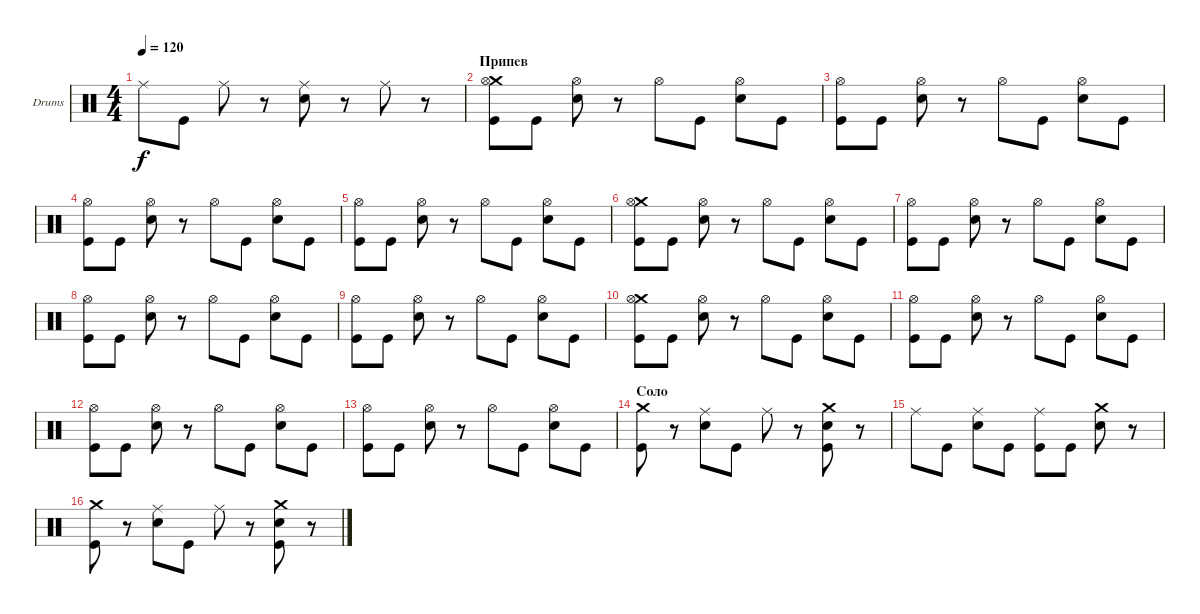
\defaultSystemsLayout 4
\bracketExtendMode groupsimilarinstruments
\firstSystemTrackNameOrientation horizontal
\otherSystemsTrackNameOrientation horizontal
\track ("Drumkit" "Drums") {instrument percussion}
\staff {score}
\articulation defaults
\ts (4 4)
\tempo 120
\clef neutral
\scale
0.333333
\ks c "Ride (middle)".8{dy f} "Kick (hit)".8 "Ride (middle)".8
r.8 ("Ride (middle)" "Snare (hit) 2").8 r.8 "Ride (middle)".8 r.8 |
\section ("" "Припев")
\scale
0.333333 ("Crash medium (hit)" "Hi-Hat (open)" "Kick (hit)").8 "Kick (hit)".8 ("Hi-Hat (open)" "Snare (hit) 2").8 r.8 "Hi-Hat (open)".8 "Kick (hit)".8 ("Hi-Hat (open)" "Snare (hit) 2").8 "Kick (hit)".8 |
\scale
0.333333 ("Hi-Hat (open)" "Kick (hit)").8 "Kick (hit)".8 ("Hi-Hat (open)" "Snare (hit) 2").8 r.8 "Hi-Hat (open)".8 "Kick (hit)".8 ("Hi-Hat (open)" "Snare (hit) 2").8 "Kick (hit)".8 |
\scale
0.333333 ("Hi-Hat (open)" "Kick (hit)").8 "Kick (hit)".8 ("Hi-Hat (open)" "Snare (hit) 2").8 r.8 "Hi-Hat (open)".8 "Kick (hit)".8 ("Hi-Hat (open)" "Snare (hit) 2").8 "Kick (hit)".8 |
\scale
0.333333 ("Hi-Hat (open)" "Kick (hit)").8 "Kick (hit)".8 ("Hi-Hat (open)" "Snare (hit) 2").8 r.8 "Hi-Hat (open)".8 "Kick (hit)".8 ("Hi-Hat (open)" "Snare (hit) 2").8 "Kick (hit)".8 |
\scale
0.333333 ("Crash medium (hit)" "Hi-Hat (open)" "Kick (hit)").8 "Kick (hit)".8 ("Hi-Hat (open)" "Snare (hit) 2").8 r.8 "Hi-Hat (open)".8 "Kick (hit)".8 ("Hi-Hat (open)" "Snare (hit) 2").8 "Kick (hit)".8 |
\scale
0.333333 ("Hi-Hat (open)" "Kick (hit)").8 "Kick (hit)".8 ("Hi-Hat (open)" "Snare (hit) 2").8 r.8 "Hi-Hat (open)".8 "Kick (hit)".8 ("Hi-Hat (open)" "Snare (hit) 2").8 "Kick (hit)".8 |
\scale
0.333333 ("Hi-Hat (open)" "Kick (hit)").8 "Kick (hit)".8 ("Hi-Hat (open)" "Snare (hit) 2").8 r.8 "Hi-Hat (open)".8 "Kick (hit)".8 ("Hi-Hat (open)" "Snare (hit) 2").8 "Kick (hit)".8 |
\scale
0.333333 ("Hi-Hat (open)" "Kick (hit)").8 "Kick (hit)".8 ("Hi-Hat (open)" "Snare (hit) 2").8 r.8 "Hi-Hat (open)".8 "Kick (hit)".8 ("Hi-Hat (open)" "Snare (hit) 2").8 "Kick (hit)".8 |
\scale
0.333333 ("Crash medium (hit)" "Hi-Hat (open)" "Kick (hit)").8 "Kick (hit)".8 ("Hi-Hat (open)" "Snare (hit) 2").8 r.8 "Hi-Hat (open)".8 "Kick (hit)".8 ("Hi-Hat (open)" "Snare (hit) 2").8 "Kick (hit)".8 |
\scale
0.333333 ("Hi-Hat (open)" "Kick (hit)").8 "Kick (hit)".8 ("Hi-Hat (open)" "Snare (hit) 2").8 r.8 "Hi-Hat (open)".8 "Kick (hit)".8 ("Hi-Hat (open)" "Snare (hit) 2").8 "Kick (hit)".8 |
\scale
0.333333 ("Hi-Hat (open)" "Kick (hit)").8 "Kick (hit)".8 ("Hi-Hat (open)" "Snare (hit) 2").8 r.8 "Hi-Hat (open)".8 "Kick (hit)".8 ("Hi-Hat (open)" "Snare (hit) 2").8 "Kick (hit)".8 |
\scale
0.333333 ("Hi-Hat (open)" "Kick (hit)").8 "Kick (hit)".8 ("Hi-Hat (open)" "Snare (hit) 2").8 r.8 "Hi-Hat (open)".8 "Kick (hit)".8 ("Hi-Hat (open)" "Snare (hit) 2").8 "Kick (hit)".8 |
\section ("" "Соло")
\scale
0.333333 ("Crash medium (hit)" "Kick (hit)").8 r.8 ("Ride (middle)" "Snare (hit) 2").8 "Kick (hit)".8 "Ride (middle)".8 r.8 ("Crash medium (hit)" "Snare (hit) 2" "Kick (hit)").8 r.8 |
\scale
0.333333 "Ride (middle)".8 "Kick (hit)".8 ("Ride (middle)" "Snare (hit) 2").8 "Kick (hit)".8 ("Ride (middle)" "Kick (hit)").8 "Kick (hit)".8 ("Crash medium (hit)" "Snare (hit) 2").8 r.8 |
\scale
0.333333 ("Crash medium (hit)" "Kick (hit)").8 r.8 ("Ride (middle)" "Snare (hit) 2").8 "Kick (hit)".8 "Ride (middle)".8 r.8 ("Crash medium (hit)" "Snare (hit) 2" "Kick (hit)").8 r.8
